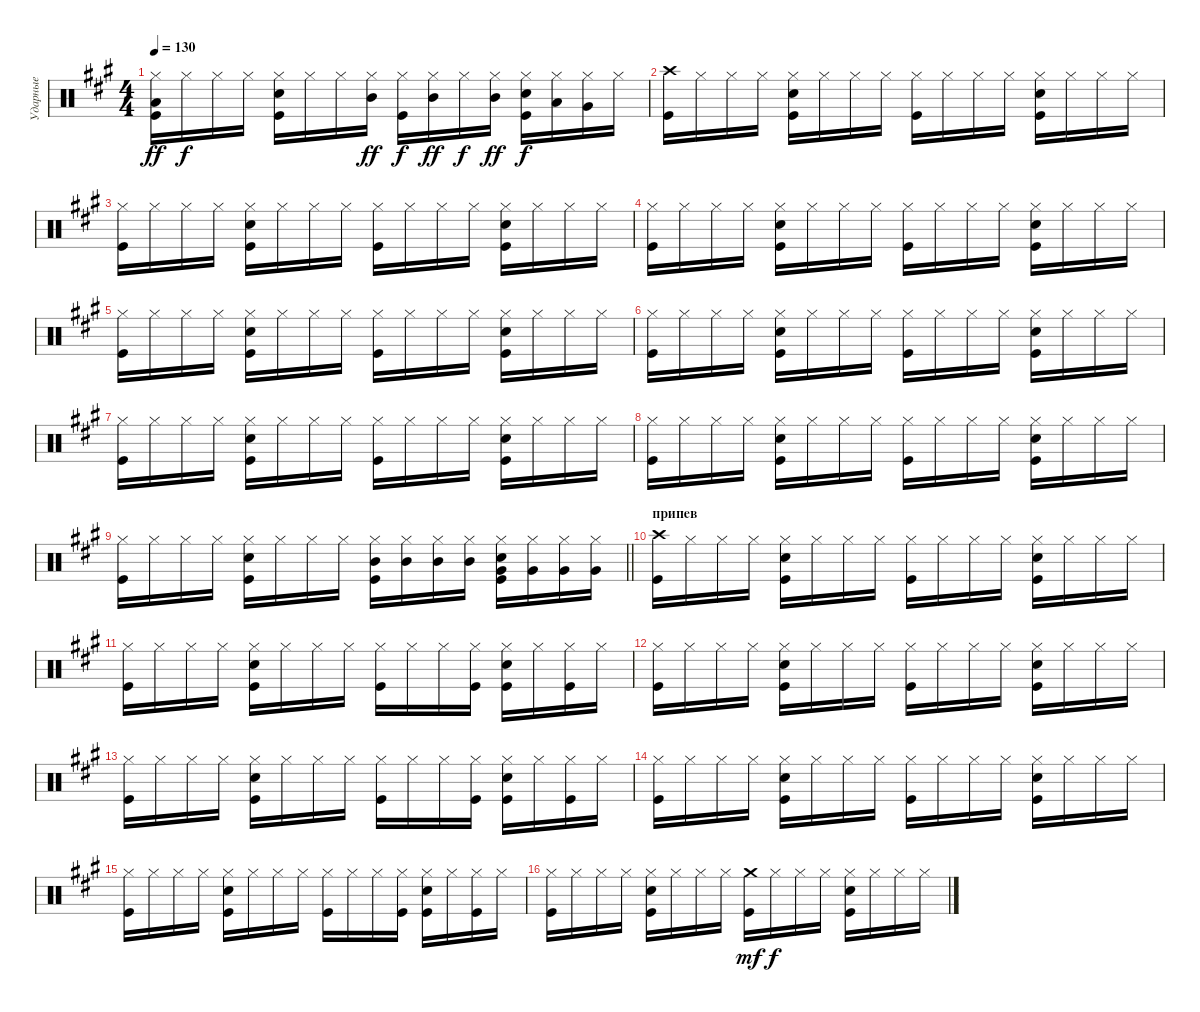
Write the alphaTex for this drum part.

\track ("Ударные" "Ударные") {instrument percussion}
\staff {score}
\articulation defaults
\ts (4 4)
\tempo 130
\clef neutral
\ks f#minor
("Hi-Hat (closed)" "Kick (hit)" "Low Floor Tom (hit)").16{dy ff} "Hi-Hat (closed)".16{dy f} "Hi-Hat (closed)".16 "Hi-Hat (closed)".16 ("Hi-Hat (closed)" "Snare (hit) 2" "Kick (hit)").16 "Hi-Hat (closed)".16 "Hi-Hat (closed)".16 ("Mid Tom (hit)" "Hi-Hat (closed)").16{dy ff} ("Hi-Hat (closed)" "Kick (hit)").16{dy f} ("Mid Tom (hit)" "Hi-Hat (closed)").16{dy ff} "Hi-Hat (closed)".16{dy f} ("Mid Tom (hit)" "Hi-Hat (closed)").16{dy ff} ("Hi-Hat (closed)" "Snare (hit) 2" "Kick (hit)").16{dy f} ("Hi-Hat (closed)" "Low Tom (hit)").16 ("Very Low Tom (hit)" "Hi-Hat (closed)").16 "Hi-Hat (closed)".16 |
("Kick (hit)" "Crash high (hit)").16 "Hi-Hat (closed)".16 "Hi-Hat (closed)".16 "Hi-Hat (closed)".16 ("Hi-Hat (closed)" "Snare (hit) 2" "Kick (hit)").16 "Hi-Hat (closed)".16 "Hi-Hat (closed)".16 "Hi-Hat (closed)".16 ("Hi-Hat (closed)" "Kick (hit)").16 "Hi-Hat (closed)".16 "Hi-Hat (closed)".16 "Hi-Hat (closed)".16 ("Hi-Hat (closed)" "Snare (hit) 2" "Kick (hit)").16 "Hi-Hat (closed)".16 "Hi-Hat (closed)".16 "Hi-Hat (closed)".16 |
("Hi-Hat (closed)" "Kick (hit)").16 "Hi-Hat (closed)".16 "Hi-Hat (closed)".16 "Hi-Hat (closed)".16 ("Hi-Hat (closed)" "Snare (hit) 2" "Kick (hit)").16 "Hi-Hat (closed)".16 "Hi-Hat (closed)".16 "Hi-Hat (closed)".16 ("Hi-Hat (closed)" "Kick (hit)").16 "Hi-Hat (closed)".16 "Hi-Hat (closed)".16 "Hi-Hat (closed)".16 ("Hi-Hat (closed)" "Snare (hit) 2" "Kick (hit)").16 "Hi-Hat (closed)".16 "Hi-Hat (closed)".16 "Hi-Hat (closed)".16 |
("Hi-Hat (closed)" "Kick (hit)").16 "Hi-Hat (closed)".16 "Hi-Hat (closed)".16 "Hi-Hat (closed)".16 ("Hi-Hat (closed)" "Snare (hit) 2" "Kick (hit)").16 "Hi-Hat (closed)".16 "Hi-Hat (closed)".16 "Hi-Hat (closed)".16 ("Hi-Hat (closed)" "Kick (hit)").16 "Hi-Hat (closed)".16 "Hi-Hat (closed)".16 "Hi-Hat (closed)".16 ("Hi-Hat (closed)" "Snare (hit) 2" "Kick (hit)").16 "Hi-Hat (closed)".16 "Hi-Hat (closed)".16 "Hi-Hat (closed)".16 |
("Hi-Hat (closed)" "Kick (hit)").16 "Hi-Hat (closed)".16 "Hi-Hat (closed)".16 "Hi-Hat (closed)".16 ("Hi-Hat (closed)" "Snare (hit) 2" "Kick (hit)").16 "Hi-Hat (closed)".16 "Hi-Hat (closed)".16 "Hi-Hat (closed)".16 ("Hi-Hat (closed)" "Kick (hit)").16 "Hi-Hat (closed)".16 "Hi-Hat (closed)".16 "Hi-Hat (closed)".16 ("Hi-Hat (closed)" "Snare (hit) 2" "Kick (hit)").16 "Hi-Hat (closed)".16 "Hi-Hat (closed)".16 "Hi-Hat (closed)".16 |
("Hi-Hat (closed)" "Kick (hit)").16 "Hi-Hat (closed)".16 "Hi-Hat (closed)".16 "Hi-Hat (closed)".16 ("Hi-Hat (closed)" "Snare (hit) 2" "Kick (hit)").16 "Hi-Hat (closed)".16 "Hi-Hat (closed)".16 "Hi-Hat (closed)".16 ("Hi-Hat (closed)" "Kick (hit)").16 "Hi-Hat (closed)".16 "Hi-Hat (closed)".16 "Hi-Hat (closed)".16 ("Hi-Hat (closed)" "Snare (hit) 2" "Kick (hit)").16 "Hi-Hat (closed)".16 "Hi-Hat (closed)".16 "Hi-Hat (closed)".16 |
("Hi-Hat (closed)" "Kick (hit)").16 "Hi-Hat (closed)".16 "Hi-Hat (closed)".16 "Hi-Hat (closed)".16 ("Hi-Hat (closed)" "Snare (hit) 2" "Kick (hit)").16 "Hi-Hat (closed)".16 "Hi-Hat (closed)".16 "Hi-Hat (closed)".16 ("Hi-Hat (closed)" "Kick (hit)").16 "Hi-Hat (closed)".16 "Hi-Hat (closed)".16 "Hi-Hat (closed)".16 ("Hi-Hat (closed)" "Snare (hit) 2" "Kick (hit)").16 "Hi-Hat (closed)".16 "Hi-Hat (closed)".16 "Hi-Hat (closed)".16 |
("Hi-Hat (closed)" "Kick (hit)").16 "Hi-Hat (closed)".16 "Hi-Hat (closed)".16 "Hi-Hat (closed)".16 ("Hi-Hat (closed)" "Snare (hit) 2" "Kick (hit)").16 "Hi-Hat (closed)".16 "Hi-Hat (closed)".16 "Hi-Hat (closed)".16 ("Hi-Hat (closed)" "Kick (hit)").16 "Hi-Hat (closed)".16 "Hi-Hat (closed)".16 "Hi-Hat (closed)".16 ("Hi-Hat (closed)" "Snare (hit) 2" "Kick (hit)").16 "Hi-Hat (closed)".16 "Hi-Hat (closed)".16 "Hi-Hat (closed)".16 |
\barLineRight lightlight
("Hi-Hat (closed)" "Kick (hit)").16 "Hi-Hat (closed)".16 "Hi-Hat (closed)".16 "Hi-Hat (closed)".16 ("Hi-Hat (closed)" "Snare (hit) 2" "Kick (hit)").16 "Hi-Hat (closed)".16 "Hi-Hat (closed)".16 "Hi-Hat (closed)".16 ("Mid Tom (hit)" "Hi-Hat (closed)" "Kick (hit)").16 ("Mid Tom (hit)" "Hi-Hat (closed)").16 ("Mid Tom (hit)" "Hi-Hat (closed)").16 ("Mid Tom (hit)" "Hi-Hat (closed)").16 ("Very Low Tom (hit)" "Hi-Hat (closed)" "Snare (hit) 2" "Kick (hit)").16 ("Very Low Tom (hit)" "Hi-Hat (closed)").16 ("Very Low Tom (hit)" "Hi-Hat (closed)").16 ("Very Low Tom (hit)" "Hi-Hat (closed)").16 |
\section ("" "припев")
("Kick (hit)" "Crash high (hit)").16 "Hi-Hat (closed)".16 "Hi-Hat (closed)".16 "Hi-Hat (closed)".16 ("Hi-Hat (closed)" "Snare (hit) 2" "Kick (hit)").16 "Hi-Hat (closed)".16 "Hi-Hat (closed)".16 "Hi-Hat (closed)".16 ("Hi-Hat (closed)" "Kick (hit)").16 "Hi-Hat (closed)".16 "Hi-Hat (closed)".16 "Hi-Hat (closed)".16 ("Hi-Hat (closed)" "Snare (hit) 2" "Kick (hit)").16 "Hi-Hat (closed)".16 "Hi-Hat (closed)".16 "Hi-Hat (closed)".16 |
("Hi-Hat (closed)" "Kick (hit)").16 "Hi-Hat (closed)".16 "Hi-Hat (closed)".16 "Hi-Hat (closed)".16 ("Hi-Hat (closed)" "Snare (hit) 2" "Kick (hit)").16 "Hi-Hat (closed)".16 "Hi-Hat (closed)".16 "Hi-Hat (closed)".16 ("Hi-Hat (closed)" "Kick (hit)").16 "Hi-Hat (closed)".16 "Hi-Hat (closed)".16 ("Hi-Hat (closed)" "Kick (hit)").16 ("Hi-Hat (closed)" "Snare (hit) 2" "Kick (hit)").16 "Hi-Hat (closed)".16 ("Hi-Hat (closed)" "Kick (hit)").16 "Hi-Hat (closed)".16 |
("Hi-Hat (closed)" "Kick (hit)").16 "Hi-Hat (closed)".16 "Hi-Hat (closed)".16 "Hi-Hat (closed)".16 ("Hi-Hat (closed)" "Snare (hit) 2" "Kick (hit)").16 "Hi-Hat (closed)".16 "Hi-Hat (closed)".16 "Hi-Hat (closed)".16 ("Hi-Hat (closed)" "Kick (hit)").16 "Hi-Hat (closed)".16 "Hi-Hat (closed)".16 "Hi-Hat (closed)".16 ("Hi-Hat (closed)" "Snare (hit) 2" "Kick (hit)").16 "Hi-Hat (closed)".16 "Hi-Hat (closed)".16 "Hi-Hat (closed)".16 |
("Hi-Hat (closed)" "Kick (hit)").16 "Hi-Hat (closed)".16 "Hi-Hat (closed)".16 "Hi-Hat (closed)".16 ("Hi-Hat (closed)" "Snare (hit) 2" "Kick (hit)").16 "Hi-Hat (closed)".16 "Hi-Hat (closed)".16 "Hi-Hat (closed)".16 ("Hi-Hat (closed)" "Kick (hit)").16 "Hi-Hat (closed)".16 "Hi-Hat (closed)".16 ("Hi-Hat (closed)" "Kick (hit)").16 ("Hi-Hat (closed)" "Snare (hit) 2" "Kick (hit)").16 "Hi-Hat (closed)".16 ("Hi-Hat (closed)" "Kick (hit)").16 "Hi-Hat (closed)".16 |
("Hi-Hat (closed)" "Kick (hit)").16 "Hi-Hat (closed)".16 "Hi-Hat (closed)".16 "Hi-Hat (closed)".16 ("Hi-Hat (closed)" "Snare (hit) 2" "Kick (hit)").16 "Hi-Hat (closed)".16 "Hi-Hat (closed)".16 "Hi-Hat (closed)".16 ("Hi-Hat (closed)" "Kick (hit)").16 "Hi-Hat (closed)".16 "Hi-Hat (closed)".16 "Hi-Hat (closed)".16 ("Hi-Hat (closed)" "Snare (hit) 2" "Kick (hit)").16 "Hi-Hat (closed)".16 "Hi-Hat (closed)".16 "Hi-Hat (closed)".16 |
("Hi-Hat (closed)" "Kick (hit)").16 "Hi-Hat (closed)".16 "Hi-Hat (closed)".16 "Hi-Hat (closed)".16 ("Hi-Hat (closed)" "Snare (hit) 2" "Kick (hit)").16 "Hi-Hat (closed)".16 "Hi-Hat (closed)".16 "Hi-Hat (closed)".16 ("Hi-Hat (closed)" "Kick (hit)").16 "Hi-Hat (closed)".16 "Hi-Hat (closed)".16 ("Hi-Hat (closed)" "Kick (hit)").16 ("Hi-Hat (closed)" "Snare (hit) 2" "Kick (hit)").16 "Hi-Hat (closed)".16 ("Hi-Hat (closed)" "Kick (hit)").16 "Hi-Hat (closed)".16 |
("Hi-Hat (closed)" "Kick (hit)").16 "Hi-Hat (closed)".16 "Hi-Hat (closed)".16 "Hi-Hat (closed)".16 ("Hi-Hat (closed)" "Snare (hit) 2" "Kick (hit)").16 "Hi-Hat (closed)".16 "Hi-Hat (closed)".16 "Hi-Hat (closed)".16 ("Crash medium (hit)" "Kick (hit)").16{dy mf} "Hi-Hat (closed)".16{dy f} "Hi-Hat (closed)".16 "Hi-Hat (closed)".16 ("Hi-Hat (closed)" "Snare (hit) 2" "Kick (hit)").16 "Hi-Hat (closed)".16 "Hi-Hat (closed)".16 "Hi-Hat (closed)".16
